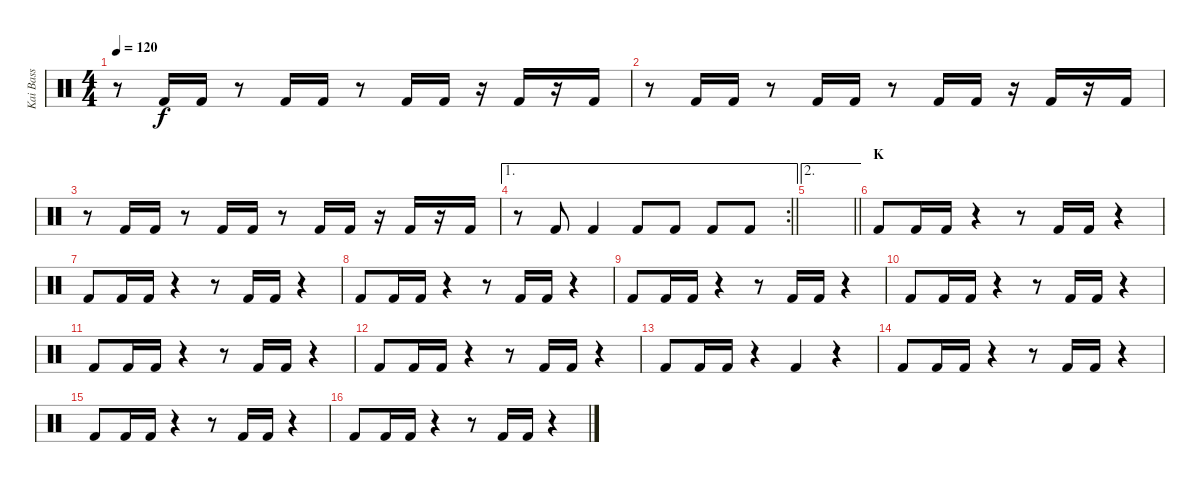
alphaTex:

\track ("Kai Bass" "Kai Bass") {instrument percussion}
\staff {score}
\articulation defaults
\ts (4 4)
\tempo 120
\clef neutral
\ks c
r.8{dy f} "Kick (hit) 2".16 "Kick (hit) 2".16 r.8 "Kick (hit) 2".16 "Kick (hit) 2".16 r.8 "Kick (hit) 2".16 "Kick (hit) 2".16 r.16 "Kick (hit) 2".16 r.16 "Kick (hit) 2".16 |
r.8 "Kick (hit) 2".16 "Kick (hit) 2".16 r.8 "Kick (hit) 2".16 "Kick (hit) 2".16 r.8 "Kick (hit) 2".16 "Kick (hit) 2".16 r.16 "Kick (hit) 2".16 r.16 "Kick (hit) 2".16 |
r.8 "Kick (hit) 2".16 "Kick (hit) 2".16 r.8 "Kick (hit) 2".16 "Kick (hit) 2".16 r.8 "Kick (hit) 2".16 "Kick (hit) 2".16 r.16 "Kick (hit) 2".16 r.16 "Kick (hit) 2".16 |
\ae 1
\rc 2
\barLineRight lightlight
r.8 "Kick (hit) 2".8 "Kick (hit) 2".4 "Kick (hit) 2".8 "Kick (hit) 2".8 "Kick (hit) 2".8 "Kick (hit) 2".8 |
\ae 2
\barLineRight lightlight
|
\section ("" "K")
"Kick (hit) 2".8 "Kick (hit) 2".16 "Kick (hit) 2".16 r.4 r.8 "Kick (hit) 2".16 "Kick (hit) 2".16 r.4 |
"Kick (hit) 2".8 "Kick (hit) 2".16 "Kick (hit) 2".16 r.4 r.8 "Kick (hit) 2".16 "Kick (hit) 2".16 r.4 |
"Kick (hit) 2".8 "Kick (hit) 2".16 "Kick (hit) 2".16 r.4 r.8 "Kick (hit) 2".16 "Kick (hit) 2".16 r.4 |
"Kick (hit) 2".8 "Kick (hit) 2".16 "Kick (hit) 2".16 r.4 r.8 "Kick (hit) 2".16 "Kick (hit) 2".16 r.4 |
"Kick (hit) 2".8 "Kick (hit) 2".16 "Kick (hit) 2".16 r.4 r.8 "Kick (hit) 2".16 "Kick (hit) 2".16 r.4 |
"Kick (hit) 2".8 "Kick (hit) 2".16 "Kick (hit) 2".16 r.4 r.8 "Kick (hit) 2".16 "Kick (hit) 2".16 r.4 |
"Kick (hit) 2".8 "Kick (hit) 2".16 "Kick (hit) 2".16 r.4 r.8 "Kick (hit) 2".16 "Kick (hit) 2".16 r.4 |
"Kick (hit) 2".8 "Kick (hit) 2".16 "Kick (hit) 2".16 r.4 "Kick (hit) 2".4 r.4 |
"Kick (hit) 2".8 "Kick (hit) 2".16 "Kick (hit) 2".16 r.4 r.8 "Kick (hit) 2".16 "Kick (hit) 2".16 r.4 |
"Kick (hit) 2".8 "Kick (hit) 2".16 "Kick (hit) 2".16 r.4 r.8 "Kick (hit) 2".16 "Kick (hit) 2".16 r.4 |
"Kick (hit) 2".8 "Kick (hit) 2".16 "Kick (hit) 2".16 r.4 r.8 "Kick (hit) 2".16 "Kick (hit) 2".16 r.4
